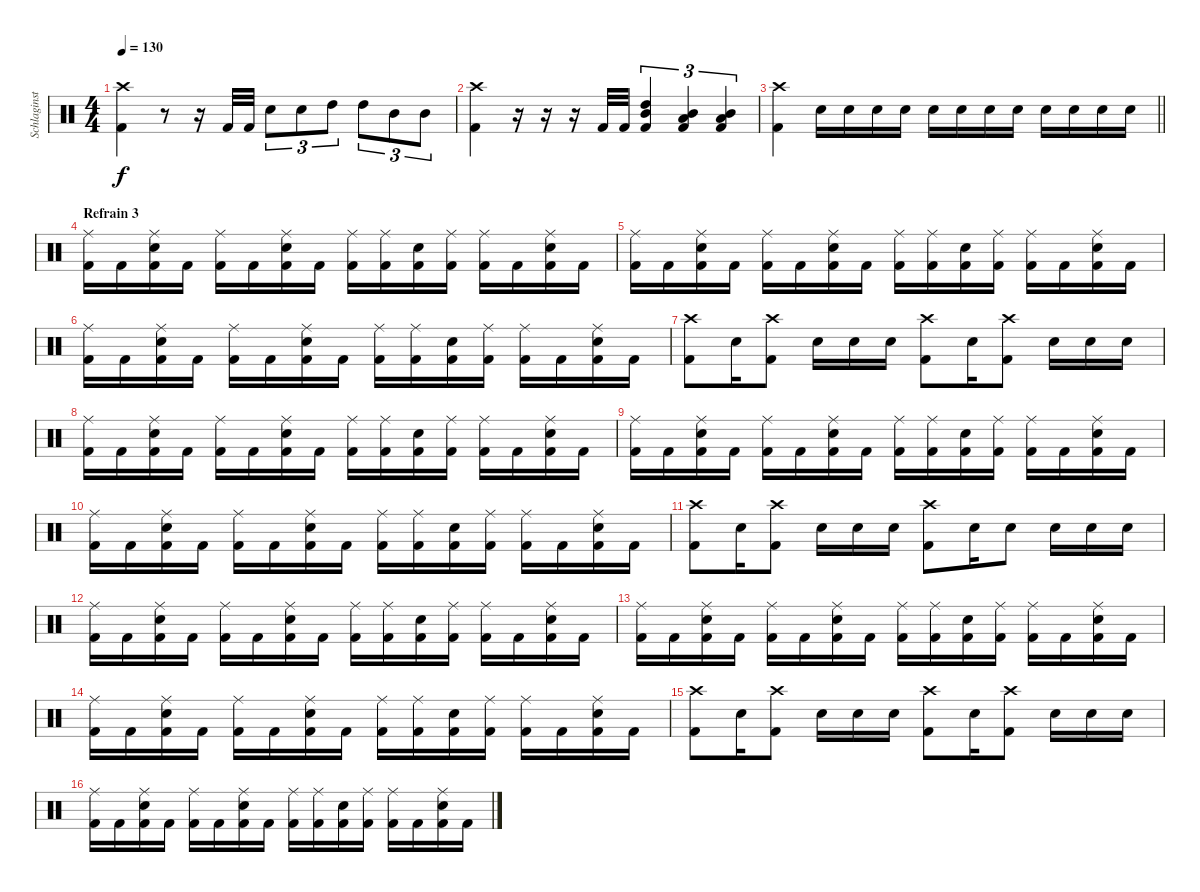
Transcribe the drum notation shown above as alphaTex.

\track ("Schlaginstrumente - Auswahl" "Schlaginst") {instrument percussion}
\staff {score}
\articulation defaults
\ts (4 4)
\tempo 130
\clef neutral
\ks c
("Crash high (hit)" "Kick (hit) 2").4{dy f} r.8 r.16 "Kick (hit) 2".32 "Kick (hit) 2".32 "Snare (hit) 2".8{tu (3 2)} "Snare (hit) 2".8{tu (3 2)} "High Tom (hit)".8{tu (3 2)} "High Tom (hit)".8{tu (3 2)} "Mid Tom (hit)".8{tu (3 2)} "Mid Tom (hit)".8{tu (3 2)} |
("Crash high (hit)" "Kick (hit) 2").4 r.16 r.16 r.16 "Kick (hit) 2".32 "Kick (hit) 2".32 ("High Tom (hit)" "Mid Tom (hit)" "Kick (hit) 2").4{tu (3 2)} ("Mid Tom (hit)" "Low Tom (hit)" "Kick (hit) 2").4{tu (3 2)} ("Mid Tom (hit)" "Low Tom (hit)" "Kick (hit) 2").4{tu (3 2)} |
\barLineRight lightlight
("Crash high (hit)" "Kick (hit) 2").4 "Snare (hit) 2".16 "Snare (hit) 2".16 "Snare (hit) 2".16 "Snare (hit) 2".16 "Snare (hit) 2".16 "Snare (hit) 2".16 "Snare (hit) 2".16 "Snare (hit) 2".16 "Snare (hit) 2".16 "Snare (hit) 2".16 "Snare (hit) 2".16 "Snare (hit) 2".16 |
\section ("" "Refrain 3")
("Ride (middle)" "Kick (hit) 2").16 "Kick (hit) 2".16 ("Ride (middle)" "Snare (hit) 2" "Kick (hit) 2").16 "Kick (hit) 2".16 ("Ride (middle)" "Kick (hit) 2").16 "Kick (hit) 2".16 ("Ride (middle)" "Snare (hit) 2" "Kick (hit) 2").16 "Kick (hit) 2".16 ("Ride (middle)" "Kick (hit) 2").16 ("Ride (middle)" "Kick (hit) 2").16 ("Snare (hit) 2" "Kick (hit) 2").16 ("Ride (middle)" "Kick (hit) 2").16 ("Ride (middle)" "Kick (hit) 2").16 "Kick (hit) 2".16 ("Ride (middle)" "Snare (hit) 2" "Kick (hit) 2").16 "Kick (hit) 2".16 |
("Ride (middle)" "Kick (hit) 2").16 "Kick (hit) 2".16 ("Ride (middle)" "Snare (hit) 2" "Kick (hit) 2").16 "Kick (hit) 2".16 ("Ride (middle)" "Kick (hit) 2").16 "Kick (hit) 2".16 ("Ride (middle)" "Snare (hit) 2" "Kick (hit) 2").16 "Kick (hit) 2".16 ("Ride (middle)" "Kick (hit) 2").16 ("Ride (middle)" "Kick (hit) 2").16 ("Snare (hit) 2" "Kick (hit) 2").16 ("Ride (middle)" "Kick (hit) 2").16 ("Ride (middle)" "Kick (hit) 2").16 "Kick (hit) 2".16 ("Ride (middle)" "Snare (hit) 2" "Kick (hit) 2").16 "Kick (hit) 2".16 |
("Ride (middle)" "Kick (hit) 2").16 "Kick (hit) 2".16 ("Ride (middle)" "Snare (hit) 2" "Kick (hit) 2").16 "Kick (hit) 2".16 ("Ride (middle)" "Kick (hit) 2").16 "Kick (hit) 2".16 ("Ride (middle)" "Snare (hit) 2" "Kick (hit) 2").16 "Kick (hit) 2".16 ("Ride (middle)" "Kick (hit) 2").16 ("Ride (middle)" "Kick (hit) 2").16 ("Snare (hit) 2" "Kick (hit) 2").16 ("Ride (middle)" "Kick (hit) 2").16 ("Ride (middle)" "Kick (hit) 2").16 "Kick (hit) 2".16 ("Ride (middle)" "Snare (hit) 2" "Kick (hit) 2").16 "Kick (hit) 2".16 |
("Crash high (hit)" "Kick (hit) 2").8 "Snare (hit) 2".16 ("Crash high (hit)" "Kick (hit) 2").8 "Snare (hit) 2".16 "Snare (hit) 2".16 "Snare (hit) 2".16 ("Crash high (hit)" "Kick (hit) 2").8 "Snare (hit) 2".16 ("Crash high (hit)" "Kick (hit) 2").8 "Snare (hit) 2".16 "Snare (hit) 2".16 "Snare (hit) 2".16 |
("Ride (middle)" "Kick (hit) 2").16 "Kick (hit) 2".16 ("Ride (middle)" "Snare (hit) 2" "Kick (hit) 2").16 "Kick (hit) 2".16 ("Ride (middle)" "Kick (hit) 2").16 "Kick (hit) 2".16 ("Ride (middle)" "Snare (hit) 2" "Kick (hit) 2").16 "Kick (hit) 2".16 ("Ride (middle)" "Kick (hit) 2").16 ("Ride (middle)" "Kick (hit) 2").16 ("Snare (hit) 2" "Kick (hit) 2").16 ("Ride (middle)" "Kick (hit) 2").16 ("Ride (middle)" "Kick (hit) 2").16 "Kick (hit) 2".16 ("Ride (middle)" "Snare (hit) 2" "Kick (hit) 2").16 "Kick (hit) 2".16 |
("Ride (middle)" "Kick (hit) 2").16 "Kick (hit) 2".16 ("Ride (middle)" "Snare (hit) 2" "Kick (hit) 2").16 "Kick (hit) 2".16 ("Ride (middle)" "Kick (hit) 2").16 "Kick (hit) 2".16 ("Ride (middle)" "Snare (hit) 2" "Kick (hit) 2").16 "Kick (hit) 2".16 ("Ride (middle)" "Kick (hit) 2").16 ("Ride (middle)" "Kick (hit) 2").16 ("Snare (hit) 2" "Kick (hit) 2").16 ("Ride (middle)" "Kick (hit) 2").16 ("Ride (middle)" "Kick (hit) 2").16 "Kick (hit) 2".16 ("Ride (middle)" "Snare (hit) 2" "Kick (hit) 2").16 "Kick (hit) 2".16 |
("Ride (middle)" "Kick (hit) 2").16 "Kick (hit) 2".16 ("Ride (middle)" "Snare (hit) 2" "Kick (hit) 2").16 "Kick (hit) 2".16 ("Ride (middle)" "Kick (hit) 2").16 "Kick (hit) 2".16 ("Ride (middle)" "Snare (hit) 2" "Kick (hit) 2").16 "Kick (hit) 2".16 ("Ride (middle)" "Kick (hit) 2").16 ("Ride (middle)" "Kick (hit) 2").16 ("Snare (hit) 2" "Kick (hit) 2").16 ("Ride (middle)" "Kick (hit) 2").16 ("Ride (middle)" "Kick (hit) 2").16 "Kick (hit) 2".16 ("Ride (middle)" "Snare (hit) 2" "Kick (hit) 2").16 "Kick (hit) 2".16 |
("Crash high (hit)" "Kick (hit) 2").8 "Snare (hit) 2".16 ("Crash high (hit)" "Kick (hit) 2").8 "Snare (hit) 2".16 "Snare (hit) 2".16 "Snare (hit) 2".16 ("Crash high (hit)" "Kick (hit) 2").8 "Snare (hit) 2".16 "Snare (hit) 2".8 "Snare (hit) 2".16 "Snare (hit) 2".16 "Snare (hit) 2".16 |
("Ride (middle)" "Kick (hit) 2").16 "Kick (hit) 2".16 ("Ride (middle)" "Snare (hit) 2" "Kick (hit) 2").16 "Kick (hit) 2".16 ("Ride (middle)" "Kick (hit) 2").16 "Kick (hit) 2".16 ("Ride (middle)" "Snare (hit) 2" "Kick (hit) 2").16 "Kick (hit) 2".16 ("Ride (middle)" "Kick (hit) 2").16 ("Ride (middle)" "Kick (hit) 2").16 ("Snare (hit) 2" "Kick (hit) 2").16 ("Ride (middle)" "Kick (hit) 2").16 ("Ride (middle)" "Kick (hit) 2").16 "Kick (hit) 2".16 ("Ride (middle)" "Snare (hit) 2" "Kick (hit) 2").16 "Kick (hit) 2".16 |
("Ride (middle)" "Kick (hit) 2").16 "Kick (hit) 2".16 ("Ride (middle)" "Snare (hit) 2" "Kick (hit) 2").16 "Kick (hit) 2".16 ("Ride (middle)" "Kick (hit) 2").16 "Kick (hit) 2".16 ("Ride (middle)" "Snare (hit) 2" "Kick (hit) 2").16 "Kick (hit) 2".16 ("Ride (middle)" "Kick (hit) 2").16 ("Ride (middle)" "Kick (hit) 2").16 ("Snare (hit) 2" "Kick (hit) 2").16 ("Ride (middle)" "Kick (hit) 2").16 ("Ride (middle)" "Kick (hit) 2").16 "Kick (hit) 2".16 ("Ride (middle)" "Snare (hit) 2" "Kick (hit) 2").16 "Kick (hit) 2".16 |
("Ride (middle)" "Kick (hit) 2").16 "Kick (hit) 2".16 ("Ride (middle)" "Snare (hit) 2" "Kick (hit) 2").16 "Kick (hit) 2".16 ("Ride (middle)" "Kick (hit) 2").16 "Kick (hit) 2".16 ("Ride (middle)" "Snare (hit) 2" "Kick (hit) 2").16 "Kick (hit) 2".16 ("Ride (middle)" "Kick (hit) 2").16 ("Ride (middle)" "Kick (hit) 2").16 ("Snare (hit) 2" "Kick (hit) 2").16 ("Ride (middle)" "Kick (hit) 2").16 ("Ride (middle)" "Kick (hit) 2").16 "Kick (hit) 2".16 ("Ride (middle)" "Snare (hit) 2" "Kick (hit) 2").16 "Kick (hit) 2".16 |
("Crash high (hit)" "Kick (hit) 2").8 "Snare (hit) 2".16 ("Crash high (hit)" "Kick (hit) 2").8 "Snare (hit) 2".16 "Snare (hit) 2".16 "Snare (hit) 2".16 ("Crash high (hit)" "Kick (hit) 2").8 "Snare (hit) 2".16 ("Crash high (hit)" "Kick (hit) 2").8 "Snare (hit) 2".16 "Snare (hit) 2".16 "Snare (hit) 2".16 |
("Ride (middle)" "Kick (hit) 2").16 "Kick (hit) 2".16 ("Ride (middle)" "Snare (hit) 2" "Kick (hit) 2").16 "Kick (hit) 2".16 ("Ride (middle)" "Kick (hit) 2").16 "Kick (hit) 2".16 ("Ride (middle)" "Snare (hit) 2" "Kick (hit) 2").16 "Kick (hit) 2".16 ("Ride (middle)" "Kick (hit) 2").16 ("Ride (middle)" "Kick (hit) 2").16 ("Snare (hit) 2" "Kick (hit) 2").16 ("Ride (middle)" "Kick (hit) 2").16 ("Ride (middle)" "Kick (hit) 2").16 "Kick (hit) 2".16 ("Ride (middle)" "Snare (hit) 2" "Kick (hit) 2").16 "Kick (hit) 2".16
